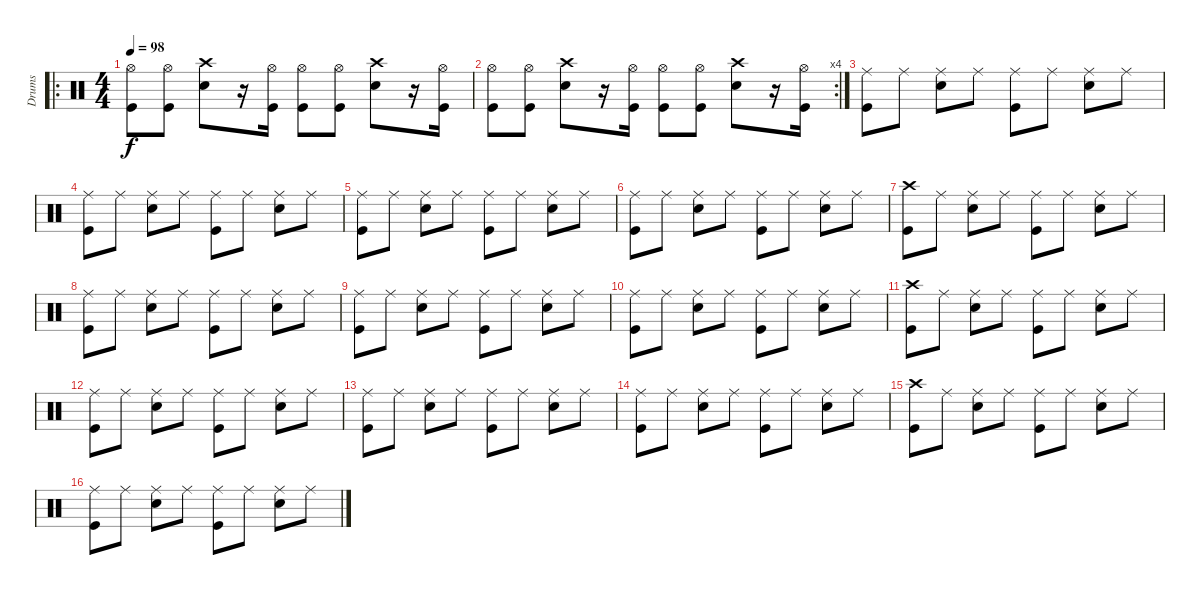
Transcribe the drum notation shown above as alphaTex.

\track ("Drums" "Drums") {instrument percussion}
\staff {score}
\articulation defaults
\ro
\ts (4 4)
\tempo 98
\clef neutral
\ks c
("Hi-Hat (open)" "Kick (hit)").8{dy f} ("Hi-Hat (open)" "Kick (hit)").8 ("Crash high (hit)" "Electric Snare (hit)").8 r.16 ("Hi-Hat (open)" "Kick (hit)").16 ("Hi-Hat (open)" "Kick (hit)").8 ("Hi-Hat (open)" "Kick (hit)").8 ("Crash high (hit)" "Electric Snare (hit)").8 r.16 ("Hi-Hat (open)" "Kick (hit)").16 |
\rc 4
("Hi-Hat (open)" "Kick (hit)").8 ("Hi-Hat (open)" "Kick (hit)").8 ("Crash high (hit)" "Electric Snare (hit)").8 r.16 ("Hi-Hat (open)" "Kick (hit)").16 ("Hi-Hat (open)" "Kick (hit)").8 ("Hi-Hat (open)" "Kick (hit)").8 ("Crash high (hit)" "Electric Snare (hit)").8 r.16 ("Hi-Hat (open)" "Kick (hit)").16 |
("Ride (middle)" "Kick (hit)").8 "Ride (middle)".8 ("Ride (middle)" "Electric Snare (hit)").8 "Ride (middle)".8 ("Ride (middle)" "Kick (hit)").8 "Ride (middle)".8 ("Ride (middle)" "Electric Snare (hit)").8 "Ride (middle)".8 |
("Ride (middle)" "Kick (hit)").8 "Ride (middle)".8 ("Ride (middle)" "Electric Snare (hit)").8 "Ride (middle)".8 ("Ride (middle)" "Kick (hit)").8 "Ride (middle)".8 ("Ride (middle)" "Electric Snare (hit)").8 "Ride (middle)".8 |
("Ride (middle)" "Kick (hit)").8 "Ride (middle)".8 ("Ride (middle)" "Electric Snare (hit)").8 "Ride (middle)".8 ("Ride (middle)" "Kick (hit)").8 "Ride (middle)".8 ("Ride (middle)" "Electric Snare (hit)").8 "Ride (middle)".8 |
("Ride (middle)" "Kick (hit)").8 "Ride (middle)".8 ("Ride (middle)" "Electric Snare (hit)").8 "Ride (middle)".8 ("Ride (middle)" "Kick (hit)").8 "Ride (middle)".8 ("Ride (middle)" "Electric Snare (hit)").8 "Ride (middle)".8 |
("Crash high (hit)" "Kick (hit)").8 "Ride (middle)".8 ("Ride (middle)" "Electric Snare (hit)").8 "Ride (middle)".8 ("Ride (middle)" "Kick (hit)").8 "Ride (middle)".8 ("Ride (middle)" "Electric Snare (hit)").8 "Ride (middle)".8 |
("Ride (middle)" "Kick (hit)").8 "Ride (middle)".8 ("Ride (middle)" "Electric Snare (hit)").8 "Ride (middle)".8 ("Ride (middle)" "Kick (hit)").8 "Ride (middle)".8 ("Ride (middle)" "Electric Snare (hit)").8 "Ride (middle)".8 |
("Ride (middle)" "Kick (hit)").8 "Ride (middle)".8 ("Ride (middle)" "Electric Snare (hit)").8 "Ride (middle)".8 ("Ride (middle)" "Kick (hit)").8 "Ride (middle)".8 ("Ride (middle)" "Electric Snare (hit)").8 "Ride (middle)".8 |
("Ride (middle)" "Kick (hit)").8 "Ride (middle)".8 ("Ride (middle)" "Electric Snare (hit)").8 "Ride (middle)".8 ("Ride (middle)" "Kick (hit)").8 "Ride (middle)".8 ("Ride (middle)" "Electric Snare (hit)").8 "Ride (middle)".8 |
("Crash high (hit)" "Kick (hit)").8 "Ride (middle)".8 ("Ride (middle)" "Electric Snare (hit)").8 "Ride (middle)".8 ("Ride (middle)" "Kick (hit)").8 "Ride (middle)".8 ("Ride (middle)" "Electric Snare (hit)").8 "Ride (middle)".8 |
("Ride (middle)" "Kick (hit)").8 "Ride (middle)".8 ("Ride (middle)" "Electric Snare (hit)").8 "Ride (middle)".8 ("Ride (middle)" "Kick (hit)").8 "Ride (middle)".8 ("Ride (middle)" "Electric Snare (hit)").8 "Ride (middle)".8 |
("Ride (middle)" "Kick (hit)").8 "Ride (middle)".8 ("Ride (middle)" "Electric Snare (hit)").8 "Ride (middle)".8 ("Ride (middle)" "Kick (hit)").8 "Ride (middle)".8 ("Ride (middle)" "Electric Snare (hit)").8 "Ride (middle)".8 |
("Ride (middle)" "Kick (hit)").8 "Ride (middle)".8 ("Ride (middle)" "Electric Snare (hit)").8 "Ride (middle)".8 ("Ride (middle)" "Kick (hit)").8 "Ride (middle)".8 ("Ride (middle)" "Electric Snare (hit)").8 "Ride (middle)".8 |
("Crash high (hit)" "Kick (hit)").8 "Ride (middle)".8 ("Ride (middle)" "Electric Snare (hit)").8 "Ride (middle)".8 ("Ride (middle)" "Kick (hit)").8 "Ride (middle)".8 ("Ride (middle)" "Electric Snare (hit)").8 "Ride (middle)".8 |
("Ride (middle)" "Kick (hit)").8 "Ride (middle)".8 ("Ride (middle)" "Electric Snare (hit)").8 "Ride (middle)".8 ("Ride (middle)" "Kick (hit)").8 "Ride (middle)".8 ("Ride (middle)" "Electric Snare (hit)").8 "Ride (middle)".8
